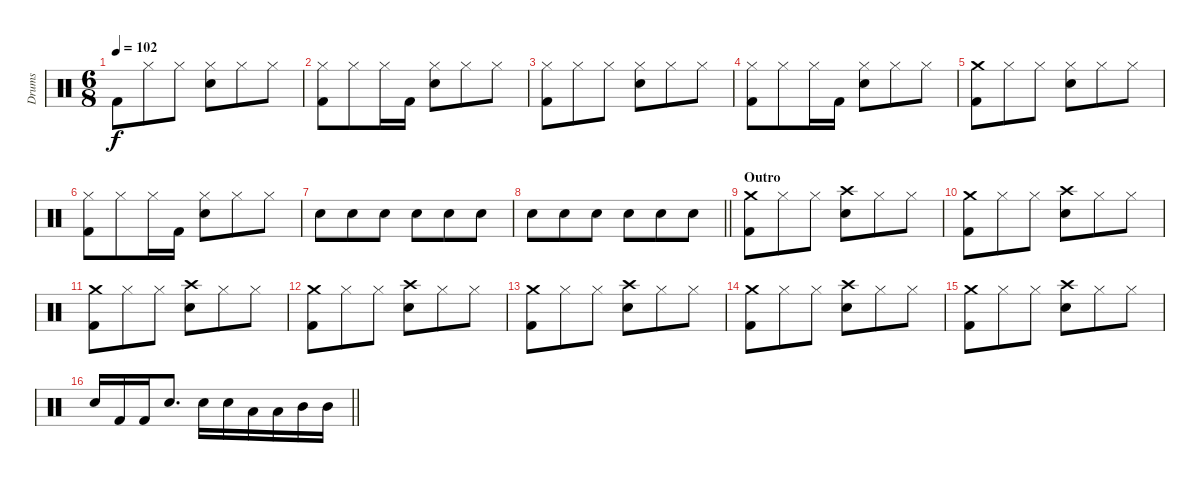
\track ("Drums" "Drums") {instrument percussion}
\staff {score}
\articulation defaults
\ts (6 8)
\tempo 102
\clef neutral
\ks aminor "Kick (hit) 2".8{dy f} "Hi-Hat (closed)".8 "Hi-Hat (closed)".8
("Hi-Hat (closed)" "Snare (hit) 2").8 "Hi-Hat (closed)".8 "Hi-Hat (closed)".8 |
("Hi-Hat (closed)" "Kick (hit) 2").8 "Hi-Hat (closed)".8 "Hi-Hat (closed)".16 "Kick (hit) 2".16 ("Hi-Hat (closed)" "Snare (hit) 2").8 "Hi-Hat (closed)".8 "Hi-Hat (closed)".8 |
("Hi-Hat (closed)" "Kick (hit) 2").8 "Hi-Hat (closed)".8 "Hi-Hat (closed)".8 ("Hi-Hat (closed)" "Snare (hit) 2").8 "Hi-Hat (closed)".8 "Hi-Hat (closed)".8 |
("Hi-Hat (closed)" "Kick (hit) 2").8 "Hi-Hat (closed)".8 "Hi-Hat (closed)".16 "Kick (hit) 2".16 ("Hi-Hat (closed)" "Snare (hit) 2").8 "Hi-Hat (closed)".8 "Hi-Hat (closed)".8 |
("Crash medium (hit)" "Kick (hit) 2").8 "Hi-Hat (closed)".8 "Hi-Hat (closed)".8 ("Hi-Hat (closed)" "Snare (hit) 2").8 "Hi-Hat (closed)".8 "Hi-Hat (closed)".8 |
("Hi-Hat (closed)" "Kick (hit) 2").8 "Hi-Hat (closed)".8 "Hi-Hat (closed)".16 "Kick (hit) 2".16 ("Hi-Hat (closed)" "Snare (hit) 2").8 "Hi-Hat (closed)".8 "Hi-Hat (closed)".8 |
"Snare (hit) 2".8 "Snare (hit) 2".8 "Snare (hit) 2".8 "Snare (hit) 2".8 "Snare (hit) 2".8 "Snare (hit) 2".8 |
\barLineRight lightlight "Snare (hit) 2".8 "Snare (hit) 2".8 "Snare (hit) 2".8 "Snare (hit) 2".8 "Snare (hit) 2".8 "Snare (hit) 2".8
|
\section ("" "Outro")
("Crash medium (hit)" "Kick (hit) 2").8 "Hi-Hat (closed)".8 "Hi-Hat (closed)".8 ("Crash high (hit)" "Snare (hit) 2").8 "Hi-Hat (closed)".8 "Hi-Hat (closed)".8 |
("Crash medium (hit)" "Kick (hit) 2").8 "Hi-Hat (closed)".8 "Hi-Hat (closed)".8 ("Crash high (hit)" "Snare (hit) 2").8 "Hi-Hat (closed)".8 "Hi-Hat (closed)".8 |
("Crash medium (hit)" "Kick (hit) 2").8 "Hi-Hat (closed)".8 "Hi-Hat (closed)".8 ("Crash high (hit)" "Snare (hit) 2").8 "Hi-Hat (closed)".8 "Hi-Hat (closed)".8 |
("Crash medium (hit)" "Kick (hit) 2").8 "Hi-Hat (closed)".8 "Hi-Hat (closed)".8 ("Crash high (hit)" "Snare (hit) 2").8 "Hi-Hat (closed)".8 "Hi-Hat (closed)".8 |
("Crash medium (hit)" "Kick (hit) 2").8 "Hi-Hat (closed)".8 "Hi-Hat (closed)".8 ("Crash high (hit)" "Snare (hit) 2").8 "Hi-Hat (closed)".8 "Hi-Hat (closed)".8 |
("Crash medium (hit)" "Kick (hit) 2").8 "Hi-Hat (closed)".8 "Hi-Hat (closed)".8 ("Crash high (hit)" "Snare (hit) 2").8 "Hi-Hat (closed)".8 "Hi-Hat (closed)".8 |
("Crash medium (hit)" "Kick (hit) 2").8 "Hi-Hat (closed)".8 "Hi-Hat (closed)".8 ("Crash high (hit)" "Snare (hit) 2").8 "Hi-Hat (closed)".8 "Hi-Hat (closed)".8 |
\barLineRight lightlight "Snare (hit) 2".16 "Kick (hit) 2".16 "Kick (hit) 2".16 "Snare (hit) 2".8{d} "Snare (hit) 2".16 "Snare (hit) 2".16 "Low Tom (hit)".16 "Low Tom (hit)".16 "Mid Tom (hit)".16 "Mid Tom (hit)".16
